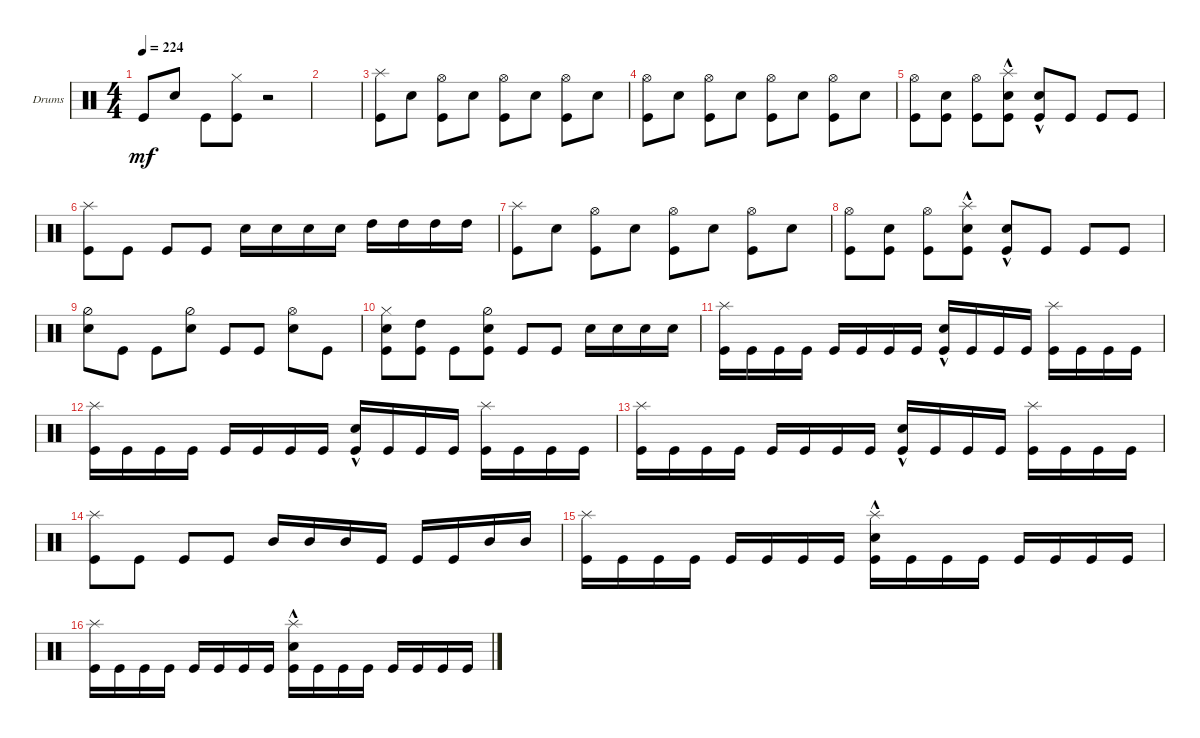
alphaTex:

\defaultSystemsLayout 4
\bracketExtendMode groupsimilarinstruments
\firstSystemTrackNameOrientation horizontal
\otherSystemsTrackNameOrientation horizontal
\track ("Drumkit" "Drums") {instrument percussion}
\staff {score}
\articulation defaults
\ts (4 4)
\tempo 224
\clef neutral
\scale
0.474178
\ks c "Kick (hit)".8{dy mf} "Snare (hit) 2".8 "Kick (hit)".8
("Hi-Hat (closed)" "Kick (hit)").8 r.2 |
\scale
0.262911 |
\scale
0.262911 ("Kick (hit)" "Splash (hit)").8 "Snare (hit) 2".8 ("Kick (hit)" "Hi-Hat (open)").8 "Snare (hit) 2".8 ("Hi-Hat (open)" "Kick (hit)").8 "Snare (hit) 2".8 ("Kick (hit)" "Hi-Hat (open)").8 "Snare (hit) 2".8 |
\scale
0.333333 ("Hi-Hat (open)" "Kick (hit)").8 "Snare (hit) 2".8 ("Kick (hit)" "Hi-Hat (open)").8 "Snare (hit) 2".8 ("Hi-Hat (open)" "Kick (hit)").8 "Snare (hit) 2".8 ("Kick (hit)" "Hi-Hat (open)").8 "Snare (hit) 2".8 |
\scale
0.333333 ("Hi-Hat (open)" "Kick (hit)").8 ("Kick (hit)" "Snare (hit) 2").8 ("Kick (hit)" "Hi-Hat (open)").8 ("Kick (hit)" "Splash (hit)" "Snare (hit) 2"{hac}).8 ("Kick (hit)" "Snare (hit) 2"{hac}).8 "Kick (hit)".8 "Kick (hit)".8 "Kick (hit)".8 |
\scale
0.333333 ("Kick (hit)" "Splash (hit)").8 "Kick (hit)".8 "Kick (hit)".8 "Kick (hit)".8 "Snare (hit) 2".16 "Snare (hit) 2".16 "Snare (hit) 2".16 "Snare (hit) 2".16 "High Tom (hit)".16 "High Tom (hit)".16 "High Tom (hit)".16 "High Tom (hit)".16 |
\scale
0.333333 ("Kick (hit)" "Splash (hit)").8 "Snare (hit) 2".8 ("Kick (hit)" "Hi-Hat (open)").8 "Snare (hit) 2".8 ("Hi-Hat (open)" "Kick (hit)").8 "Snare (hit) 2".8 ("Kick (hit)" "Hi-Hat (open)").8 "Snare (hit) 2".8 |
\scale
0.333333 ("Hi-Hat (open)" "Kick (hit)").8 ("Kick (hit)" "Snare (hit) 2").8 ("Kick (hit)" "Hi-Hat (open)").8 ("Kick (hit)" "Splash (hit)" "Snare (hit) 2"{hac}).8 ("Kick (hit)" "Snare (hit) 2"{hac}).8 "Kick (hit)".8 "Kick (hit)".8 "Kick (hit)".8 |
\scale
0.333333 ("Snare (hit) 2" "Hi-Hat (half)").8 "Kick (hit)".8 "Kick (hit)".8 ("Snare (hit) 2" "Hi-Hat (half)").8 "Kick (hit)".8 "Kick (hit)".8 ("Snare (hit) 2" "Hi-Hat (open)").8 "Kick (hit)".8 |
\scale
0.333333 ("Snare (hit) 2" "Kick (hit)" "Hi-Hat (closed)").8 ("High Tom (hit)" "Kick (hit)").8 "Kick (hit)".8 ("Snare (hit) 2" "Kick (hit)" "Hi-Hat (half)").8 "Kick (hit)".8 "Kick (hit)".8 "Snare (hit) 2".16 "Snare (hit) 2".16 "Snare (hit) 2".16 "Snare (hit) 2".16 |
\scale
0.333333 ("Splash (hit)" "Kick (hit)").16 "Kick (hit)".16 "Kick (hit)".16 "Kick (hit)".16 "Kick (hit)".16 "Kick (hit)".16 "Kick (hit)".16 "Kick (hit)".16 ("Kick (hit)" "Snare (hit) 2"{hac}).16 "Kick (hit)".16 "Kick (hit)".16 "Kick (hit)".16 ("Kick (hit)" "Splash (hit)").16 "Kick (hit)".16 "Kick (hit)".16 "Kick (hit)".16 |
\scale
0.333333 ("Splash (hit)" "Kick (hit)").16 "Kick (hit)".16 "Kick (hit)".16 "Kick (hit)".16 "Kick (hit)".16 "Kick (hit)".16 "Kick (hit)".16 "Kick (hit)".16 ("Kick (hit)" "Snare (hit) 2"{hac}).16 "Kick (hit)".16 "Kick (hit)".16 "Kick (hit)".16 ("Kick (hit)" "Splash (hit)").16 "Kick (hit)".16 "Kick (hit)".16 "Kick (hit)".16 |
\scale
0.333333 ("Splash (hit)" "Kick (hit)").16 "Kick (hit)".16 "Kick (hit)".16 "Kick (hit)".16 "Kick (hit)".16 "Kick (hit)".16 "Kick (hit)".16 "Kick (hit)".16 ("Kick (hit)" "Snare (hit) 2"{hac}).16 "Kick (hit)".16 "Kick (hit)".16 "Kick (hit)".16 ("Kick (hit)" "Splash (hit)").16 "Kick (hit)".16 "Kick (hit)".16 "Kick (hit)".16 |
\scale
0.333333 ("Kick (hit)" "Splash (hit)").8 "Kick (hit)".8 "Kick (hit)".8 "Kick (hit)".8 "Mid Tom (hit)".16 "Mid Tom (hit)".16 "Mid Tom (hit)".16 "Kick (hit)".16 "Kick (hit)".16 "Kick (hit)".16 "Mid Tom (hit)".16 "Mid Tom (hit)".16 |
\scale
0.333333 ("Splash (hit)" "Kick (hit)").16 "Kick (hit)".16 "Kick (hit)".16 "Kick (hit)".16 "Kick (hit)".16 "Kick (hit)".16 "Kick (hit)".16 "Kick (hit)".16 ("Kick (hit)" "Snare (hit) 2"{hac} "Splash (hit)").16 "Kick (hit)".16 "Kick (hit)".16 "Kick (hit)".16 "Kick (hit)".16 "Kick (hit)".16 "Kick (hit)".16 "Kick (hit)".16 |
\scale
0.333333 ("Splash (hit)" "Kick (hit)").16 "Kick (hit)".16 "Kick (hit)".16 "Kick (hit)".16 "Kick (hit)".16 "Kick (hit)".16 "Kick (hit)".16 "Kick (hit)".16 ("Kick (hit)" "Snare (hit) 2"{hac} "Splash (hit)").16 "Kick (hit)".16 "Kick (hit)".16 "Kick (hit)".16 "Kick (hit)".16 "Kick (hit)".16 "Kick (hit)".16 "Kick (hit)".16
